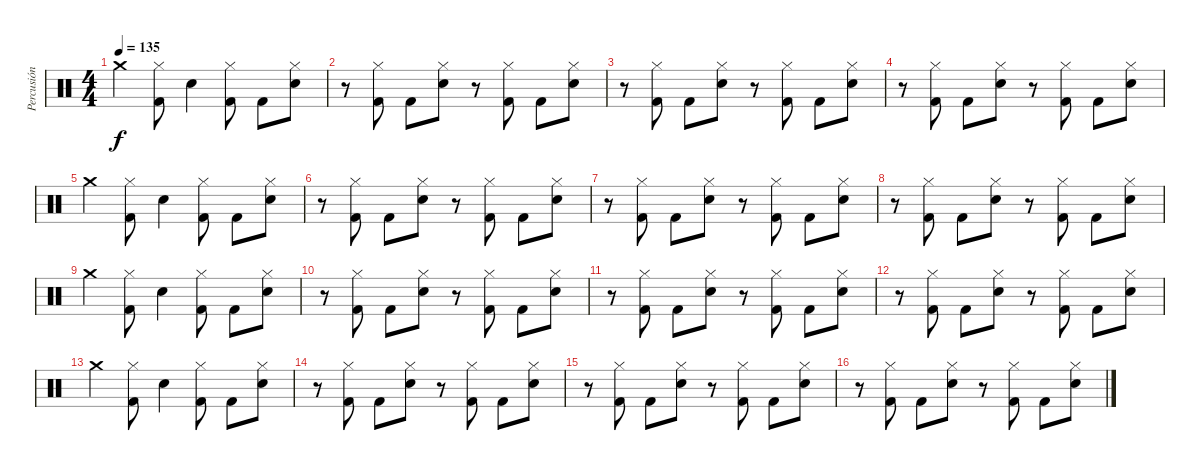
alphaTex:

\track ("Percusión" "Percusión") {instrument percussion}
\staff {score}
\articulation defaults
\ts (4 4)
\tempo 135
\clef neutral
\ks c "Crash medium (hit)".4{dy f}
("Hi-Hat (closed)" "Kick (hit) 2").8 "Snare (hit) 2".4 ("Hi-Hat (closed)" "Kick (hit) 2").8 "Kick (hit) 2".8 ("Snare (hit) 2" "Hi-Hat (closed)").8 |
r.8 ("Hi-Hat (closed)" "Kick (hit) 2").8 "Kick (hit) 2".8 ("Snare (hit) 2" "Hi-Hat (closed)").8 r.8 ("Hi-Hat (closed)" "Kick (hit) 2").8 "Kick (hit) 2".8 ("Snare (hit) 2" "Hi-Hat (closed)").8 |
r.8 ("Hi-Hat (closed)" "Kick (hit) 2").8 "Kick (hit) 2".8 ("Snare (hit) 2" "Hi-Hat (closed)").8 r.8 ("Hi-Hat (closed)" "Kick (hit) 2").8 "Kick (hit) 2".8 ("Snare (hit) 2" "Hi-Hat (closed)").8 |
r.8 ("Hi-Hat (closed)" "Kick (hit) 2").8 "Kick (hit) 2".8 ("Snare (hit) 2" "Hi-Hat (closed)").8 r.8 ("Hi-Hat (closed)" "Kick (hit) 2").8 "Kick (hit) 2".8 ("Snare (hit) 2" "Hi-Hat (closed)").8 |
"Crash medium (hit)".4 ("Hi-Hat (closed)" "Kick (hit) 2").8 "Snare (hit) 2".4 ("Hi-Hat (closed)" "Kick (hit) 2").8 "Kick (hit) 2".8 ("Snare (hit) 2" "Hi-Hat (closed)").8 |
r.8 ("Hi-Hat (closed)" "Kick (hit) 2").8 "Kick (hit) 2".8 ("Snare (hit) 2" "Hi-Hat (closed)").8 r.8 ("Hi-Hat (closed)" "Kick (hit) 2").8 "Kick (hit) 2".8 ("Snare (hit) 2" "Hi-Hat (closed)").8 |
r.8 ("Hi-Hat (closed)" "Kick (hit) 2").8 "Kick (hit) 2".8 ("Snare (hit) 2" "Hi-Hat (closed)").8 r.8 ("Hi-Hat (closed)" "Kick (hit) 2").8 "Kick (hit) 2".8 ("Snare (hit) 2" "Hi-Hat (closed)").8 |
r.8 ("Hi-Hat (closed)" "Kick (hit) 2").8 "Kick (hit) 2".8 ("Snare (hit) 2" "Hi-Hat (closed)").8 r.8 ("Hi-Hat (closed)" "Kick (hit) 2").8 "Kick (hit) 2".8 ("Snare (hit) 2" "Hi-Hat (closed)").8 |
"Crash medium (hit)".4 ("Hi-Hat (closed)" "Kick (hit) 2").8 "Snare (hit) 2".4 ("Hi-Hat (closed)" "Kick (hit) 2").8 "Kick (hit) 2".8 ("Snare (hit) 2" "Hi-Hat (closed)").8 |
r.8 ("Hi-Hat (closed)" "Kick (hit) 2").8 "Kick (hit) 2".8 ("Snare (hit) 2" "Hi-Hat (closed)").8 r.8 ("Hi-Hat (closed)" "Kick (hit) 2").8 "Kick (hit) 2".8 ("Snare (hit) 2" "Hi-Hat (closed)").8 |
r.8 ("Hi-Hat (closed)" "Kick (hit) 2").8 "Kick (hit) 2".8 ("Snare (hit) 2" "Hi-Hat (closed)").8 r.8 ("Hi-Hat (closed)" "Kick (hit) 2").8 "Kick (hit) 2".8 ("Snare (hit) 2" "Hi-Hat (closed)").8 |
r.8 ("Hi-Hat (closed)" "Kick (hit) 2").8 "Kick (hit) 2".8 ("Snare (hit) 2" "Hi-Hat (closed)").8 r.8 ("Hi-Hat (closed)" "Kick (hit) 2").8 "Kick (hit) 2".8 ("Snare (hit) 2" "Hi-Hat (closed)").8 |
"Crash medium (hit)".4 ("Hi-Hat (closed)" "Kick (hit) 2").8 "Snare (hit) 2".4 ("Hi-Hat (closed)" "Kick (hit) 2").8 "Kick (hit) 2".8 ("Snare (hit) 2" "Hi-Hat (closed)").8 |
r.8 ("Hi-Hat (closed)" "Kick (hit) 2").8 "Kick (hit) 2".8 ("Snare (hit) 2" "Hi-Hat (closed)").8 r.8 ("Hi-Hat (closed)" "Kick (hit) 2").8 "Kick (hit) 2".8 ("Snare (hit) 2" "Hi-Hat (closed)").8 |
r.8 ("Hi-Hat (closed)" "Kick (hit) 2").8 "Kick (hit) 2".8 ("Snare (hit) 2" "Hi-Hat (closed)").8 r.8 ("Hi-Hat (closed)" "Kick (hit) 2").8 "Kick (hit) 2".8 ("Snare (hit) 2" "Hi-Hat (closed)").8 |
r.8 ("Hi-Hat (closed)" "Kick (hit) 2").8 "Kick (hit) 2".8 ("Snare (hit) 2" "Hi-Hat (closed)").8 r.8 ("Hi-Hat (closed)" "Kick (hit) 2").8 "Kick (hit) 2".8 ("Snare (hit) 2" "Hi-Hat (closed)").8
